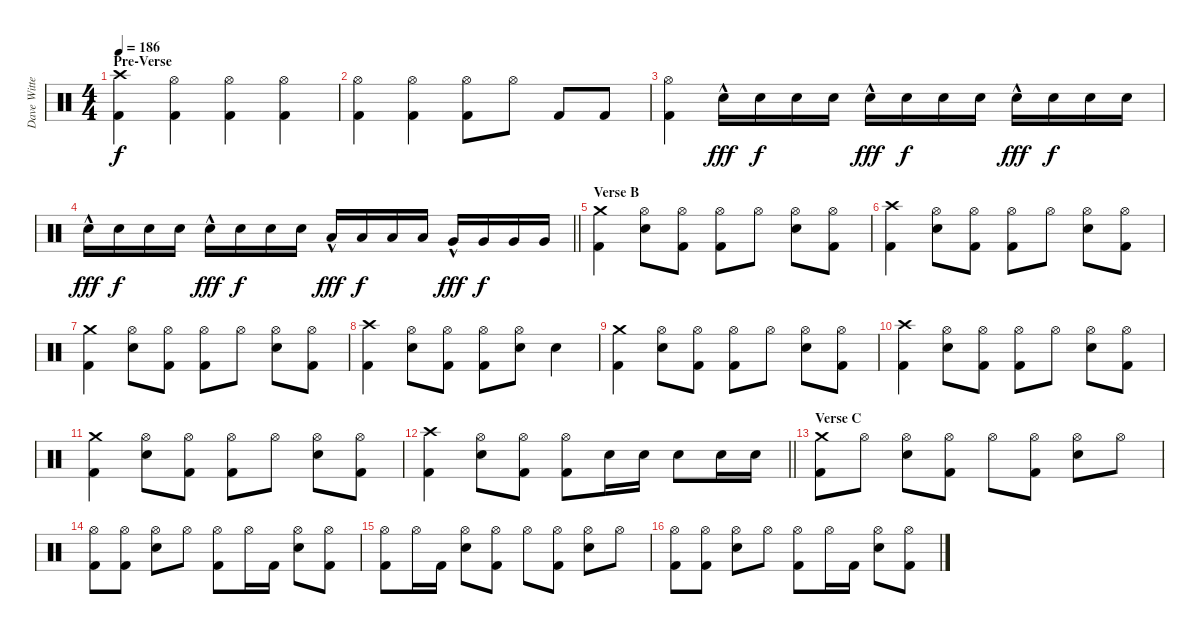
\track ("Dave Witte" "Dave Witte") {instrument percussion}
\staff {score}
\articulation defaults
\ts (4 4)
\section ("" "Pre-Verse")
\tempo 186
\clef neutral
\ks c
("Crash high (hit)" "Kick (hit) 2").4{dy f} ("Hi-Hat (open)" "Kick (hit) 2").4 ("Hi-Hat (open)" "Kick (hit) 2").4 ("Hi-Hat (open)" "Kick (hit) 2").4 |
("Hi-Hat (open)" "Kick (hit) 2").4 ("Hi-Hat (open)" "Kick (hit) 2").4 ("Hi-Hat (open)" "Kick (hit) 2").8 "Hi-Hat (open)".8 "Kick (hit) 2".8 "Kick (hit) 2".8 |
("Hi-Hat (open)" "Kick (hit) 2").4 "Electric Snare (hit)"{hac}.16{dy fff} "Electric Snare (hit)".16{dy f} "Electric Snare (hit)".16 "Electric Snare (hit)".16 "Electric Snare (hit)"{hac}.16{dy fff} "Electric Snare (hit)".16{dy f} "Electric Snare (hit)".16 "Electric Snare (hit)".16 "Electric Snare (hit)"{hac}.16{dy fff} "Electric Snare (hit)".16{dy f} "Electric Snare (hit)".16 "Electric Snare (hit)".16 |
\barLineRight lightlight "Electric Snare (hit)"{hac}.16{dy fff} "Electric Snare (hit)".16{dy f} "Electric Snare (hit)".16 "Electric Snare (hit)".16 "Electric Snare (hit)"{hac}.16{dy fff} "Electric Snare (hit)".16{dy f} "Electric Snare (hit)".16 "Electric Snare (hit)".16 "Low Tom (hit)"{hac}.16{dy fff} "Low Tom (hit)".16{dy f} "Low Tom (hit)".16 "Low Tom (hit)".16 "Very Low Tom (hit)"{hac}.16{dy fff} "Very Low Tom (hit)".16{dy f} "Very Low Tom (hit)".16 "Very Low Tom (hit)".16
|
\section ("" "Verse B")
("Crash medium (hit)" "Kick (hit) 2").4 ("Hi-Hat (open)" "Electric Snare (hit)").8 ("Hi-Hat (open)" "Kick (hit) 2").8 ("Hi-Hat (open)" "Kick (hit) 2").8 "Hi-Hat (open)".8 ("Hi-Hat (open)" "Electric Snare (hit)").8 ("Hi-Hat (open)" "Kick (hit) 2").8 |
("Crash high (hit)" "Kick (hit) 2").4 ("Hi-Hat (open)" "Electric Snare (hit)").8 ("Hi-Hat (open)" "Kick (hit) 2").8 ("Hi-Hat (open)" "Kick (hit) 2").8 "Hi-Hat (open)".8 ("Hi-Hat (open)" "Electric Snare (hit)").8 ("Hi-Hat (open)" "Kick (hit) 2").8 |
("Crash medium (hit)" "Kick (hit) 2").4 ("Hi-Hat (open)" "Electric Snare (hit)").8 ("Hi-Hat (open)" "Kick (hit) 2").8 ("Hi-Hat (open)" "Kick (hit) 2").8 "Hi-Hat (open)".8 ("Hi-Hat (open)" "Electric Snare (hit)").8 ("Hi-Hat (open)" "Kick (hit) 2").8 |
("Crash high (hit)" "Kick (hit) 2").4 ("Hi-Hat (open)" "Electric Snare (hit)").8 ("Hi-Hat (open)" "Kick (hit) 2").8 ("Hi-Hat (open)" "Kick (hit) 2").8 ("Hi-Hat (open)" "Electric Snare (hit)").8 "Electric Snare (hit)".4 |
("Crash medium (hit)" "Kick (hit) 2").4 ("Hi-Hat (open)" "Electric Snare (hit)").8 ("Hi-Hat (open)" "Kick (hit) 2").8 ("Hi-Hat (open)" "Kick (hit) 2").8 "Hi-Hat (open)".8 ("Hi-Hat (open)" "Electric Snare (hit)").8 ("Hi-Hat (open)" "Kick (hit) 2").8 |
("Crash high (hit)" "Kick (hit) 2").4 ("Hi-Hat (open)" "Electric Snare (hit)").8 ("Hi-Hat (open)" "Kick (hit) 2").8 ("Hi-Hat (open)" "Kick (hit) 2").8 "Hi-Hat (open)".8 ("Hi-Hat (open)" "Electric Snare (hit)").8 ("Hi-Hat (open)" "Kick (hit) 2").8 |
("Crash medium (hit)" "Kick (hit) 2").4 ("Hi-Hat (open)" "Electric Snare (hit)").8 ("Hi-Hat (open)" "Kick (hit) 2").8 ("Hi-Hat (open)" "Kick (hit) 2").8 "Hi-Hat (open)".8 ("Hi-Hat (open)" "Electric Snare (hit)").8 ("Hi-Hat (open)" "Kick (hit) 2").8 |
\barLineRight lightlight
("Crash high (hit)" "Kick (hit) 2").4 ("Hi-Hat (open)" "Electric Snare (hit)").8 ("Hi-Hat (open)" "Kick (hit) 2").8 ("Hi-Hat (open)" "Kick (hit) 2").8 "Electric Snare (hit)".16 "Electric Snare (hit)".16 "Electric Snare (hit)".8 "Electric Snare (hit)".16 "Electric Snare (hit)".16 |
\section ("" "Verse C")
("Crash medium (hit)" "Kick (hit) 2").8 "Hi-Hat (open)".8 ("Hi-Hat (open)" "Electric Snare (hit)").8 ("Hi-Hat (open)" "Kick (hit) 2").8 "Hi-Hat (open)".8 ("Hi-Hat (open)" "Kick (hit) 2").8 ("Hi-Hat (open)" "Electric Snare (hit)").8 "Hi-Hat (open)".8 |
("Hi-Hat (open)" "Kick (hit) 2").8 ("Hi-Hat (open)" "Kick (hit) 2").8 ("Hi-Hat (open)" "Electric Snare (hit)").8 "Hi-Hat (open)".8 ("Hi-Hat (open)" "Kick (hit) 2").8 "Hi-Hat (open)".16 "Kick (hit) 2".16 ("Hi-Hat (open)" "Electric Snare (hit)").8 ("Hi-Hat (open)" "Kick (hit) 2").8 |
("Hi-Hat (open)" "Kick (hit) 2").8 "Hi-Hat (open)".16 "Kick (hit) 2".16 ("Hi-Hat (open)" "Electric Snare (hit)").8 ("Hi-Hat (open)" "Kick (hit) 2").8 "Hi-Hat (open)".8 ("Hi-Hat (open)" "Kick (hit) 2").8 ("Hi-Hat (open)" "Electric Snare (hit)").8 "Hi-Hat (open)".8 |
("Hi-Hat (open)" "Kick (hit) 2").8 ("Hi-Hat (open)" "Kick (hit) 2").8 ("Hi-Hat (open)" "Electric Snare (hit)").8 "Hi-Hat (open)".8 ("Hi-Hat (open)" "Kick (hit) 2").8 "Hi-Hat (open)".16 "Kick (hit) 2".16 ("Hi-Hat (open)" "Electric Snare (hit)").8 ("Hi-Hat (open)" "Kick (hit) 2").8
